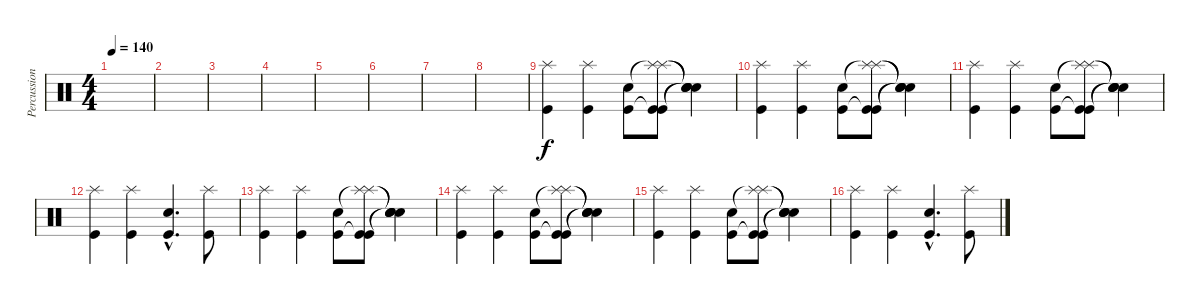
\track ("Percussions" "Percussion") {instrument percussion}
\staff {score}
\articulation defaults
\ts (4 4)
\tempo 140
\clef neutral
\ks c
|
|
|
|
|
|
|
|
("Kick (hit)" "Splash (hit)").4 ("Kick (hit)" "Splash (hit)").4 ("Kick (hit)" "Electric Snare (hit)").8 ("Kick (hit)"{t} "Splash (hit)"{t} "Kick (hit)" "Splash (hit)").8 ("Snare (hit)"{t} "Snare (hit)"{t} "Snare (hit)"{t} "Snare (hit)"{t}).4 |
("Kick (hit)" "Splash (hit)").4 ("Kick (hit)" "Splash (hit)").4 ("Kick (hit)" "Electric Snare (hit)").8 ("Kick (hit)"{t} "Splash (hit)"{t} "Kick (hit)" "Splash (hit)").8 ("Snare (hit)"{t} "Snare (hit)"{t} "Snare (hit)"{t} "Snare (hit)"{t}).4 |
("Kick (hit)" "Splash (hit)").4 ("Kick (hit)" "Splash (hit)").4 ("Kick (hit)" "Electric Snare (hit)").8 ("Kick (hit)"{t} "Splash (hit)"{t} "Kick (hit)" "Splash (hit)").8 ("Snare (hit)"{t} "Snare (hit)"{t} "Snare (hit)"{t} "Snare (hit)"{t}).4 |
("Kick (hit)" "Splash (hit)").4 ("Kick (hit)" "Splash (hit)").4 ("Kick (hit)"{hac} "Electric Snare (hit)"{hac}).4{d} ("Kick (hit)" "Splash (hit)").8 |
("Kick (hit)" "Splash (hit)").4 ("Kick (hit)" "Splash (hit)").4 ("Kick (hit)" "Electric Snare (hit)").8 ("Kick (hit)"{t} "Splash (hit)"{t} "Kick (hit)" "Splash (hit)").8 ("Snare (hit)"{t} "Snare (hit)"{t} "Snare (hit)"{t} "Snare (hit)"{t}).4 |
("Kick (hit)" "Splash (hit)").4 ("Kick (hit)" "Splash (hit)").4 ("Kick (hit)" "Electric Snare (hit)").8 ("Kick (hit)"{t} "Splash (hit)"{t} "Kick (hit)" "Splash (hit)").8 ("Snare (hit)"{t} "Snare (hit)"{t} "Snare (hit)"{t} "Snare (hit)"{t}).4 |
("Kick (hit)" "Splash (hit)").4 ("Kick (hit)" "Splash (hit)").4 ("Kick (hit)" "Electric Snare (hit)").8 ("Kick (hit)"{t} "Splash (hit)"{t} "Kick (hit)" "Splash (hit)").8 ("Snare (hit)"{t} "Snare (hit)"{t} "Snare (hit)"{t} "Snare (hit)"{t}).4 |
("Kick (hit)" "Splash (hit)").4 ("Kick (hit)" "Splash (hit)").4 ("Kick (hit)"{hac} "Electric Snare (hit)"{hac}).4{d} ("Kick (hit)" "Splash (hit)").8
